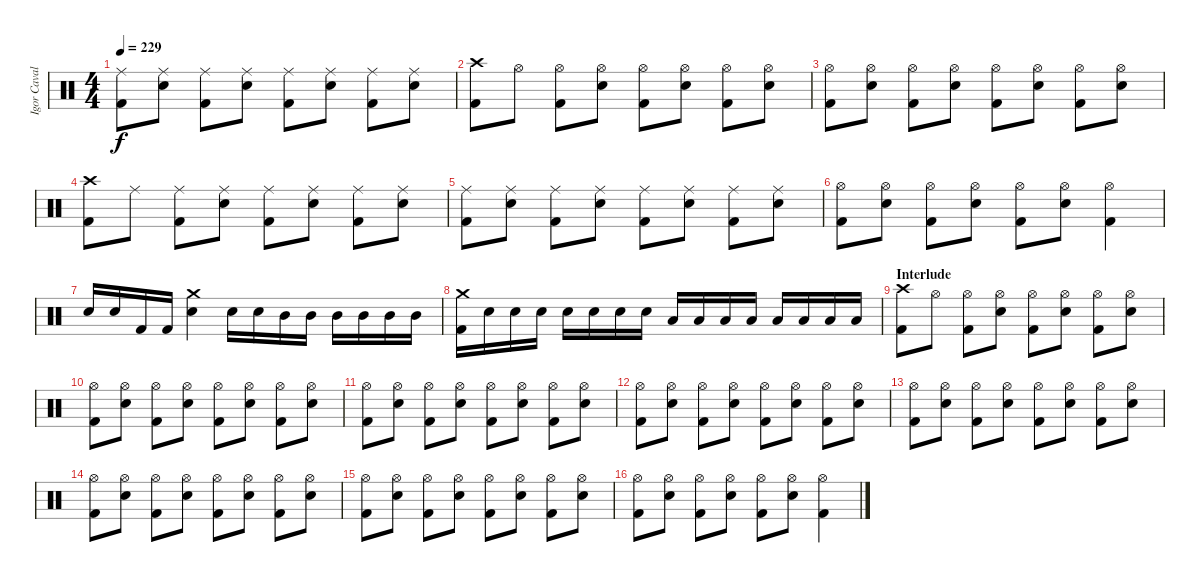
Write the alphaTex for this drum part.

\track ("Igor Cavalera" "Igor Caval") {instrument percussion}
\staff {score}
\articulation defaults
\ts (4 4)
\tempo 229
\clef neutral
\ks c
("Kick (hit) 2" "Ride (middle)").8{dy f} ("Snare (hit) 2" "Ride (middle)").8 ("Kick (hit) 2" "Ride (middle)").8 ("Snare (hit) 2" "Ride (middle)").8 ("Kick (hit) 2" "Ride (middle)").8 ("Snare (hit) 2" "Ride (middle)").8 ("Kick (hit) 2" "Ride (middle)").8 ("Snare (hit) 2" "Ride (middle)").8 |
("Kick (hit) 2" "Crash high (hit)").8 "Hi-Hat (open)".8 ("Kick (hit) 2" "Hi-Hat (open)").8 ("Snare (hit) 2" "Hi-Hat (open)").8 ("Kick (hit) 2" "Hi-Hat (open)").8 ("Snare (hit) 2" "Hi-Hat (open)").8 ("Kick (hit) 2" "Hi-Hat (open)").8 ("Snare (hit) 2" "Hi-Hat (open)").8 |
("Kick (hit) 2" "Hi-Hat (open)").8 ("Snare (hit) 2" "Hi-Hat (open)").8 ("Kick (hit) 2" "Hi-Hat (open)").8 ("Snare (hit) 2" "Hi-Hat (open)").8 ("Kick (hit) 2" "Hi-Hat (open)").8 ("Snare (hit) 2" "Hi-Hat (open)").8 ("Kick (hit) 2" "Hi-Hat (open)").8 ("Snare (hit) 2" "Hi-Hat (open)").8 |
("Kick (hit) 2" "Crash high (hit)").8 "Ride (middle)".8 ("Kick (hit) 2" "Ride (middle)").8 ("Snare (hit) 2" "Ride (middle)").8 ("Kick (hit) 2" "Ride (middle)").8 ("Snare (hit) 2" "Ride (middle)").8 ("Kick (hit) 2" "Ride (middle)").8 ("Snare (hit) 2" "Ride (middle)").8 |
("Kick (hit) 2" "Ride (middle)").8 ("Snare (hit) 2" "Ride (middle)").8 ("Kick (hit) 2" "Ride (middle)").8 ("Snare (hit) 2" "Ride (middle)").8 ("Kick (hit) 2" "Ride (middle)").8 ("Snare (hit) 2" "Ride (middle)").8 ("Kick (hit) 2" "Ride (middle)").8 ("Snare (hit) 2" "Ride (middle)").8 |
("Kick (hit) 2" "Hi-Hat (open)").8 ("Snare (hit) 2" "Hi-Hat (open)").8 ("Kick (hit) 2" "Hi-Hat (open)").8 ("Snare (hit) 2" "Hi-Hat (open)").8 ("Kick (hit) 2" "Hi-Hat (open)").8 ("Snare (hit) 2" "Hi-Hat (open)").8 ("Kick (hit) 2" "Hi-Hat (open)").4 |
"Snare (hit) 2".16 "Snare (hit) 2".16 "Kick (hit) 2".16 "Kick (hit) 2".16 ("Snare (hit) 2" "Crash medium (hit)").4 "Snare (hit) 2".16 "Snare (hit) 2".16 "Mid Tom (hit)".16 "Mid Tom (hit)".16 "Mid Tom (hit)".16 "Mid Tom (hit)".16 "Mid Tom (hit)".16 "Mid Tom (hit)".16 |
("Kick (hit) 2" "Crash medium (hit)").16 "Snare (hit) 2".16 "Snare (hit) 2".16 "Snare (hit) 2".16 "Snare (hit) 2".16 "Snare (hit) 2".16 "Snare (hit) 2".16 "Snare (hit) 2".16 "Low Tom (hit)".16 "Low Tom (hit)".16 "Low Tom (hit)".16 "Low Tom (hit)".16 "Low Tom (hit)".16 "Low Tom (hit)".16 "Low Tom (hit)".16 "Low Tom (hit)".16 |
\section ("" "Interlude")
("Kick (hit) 2" "Crash high (hit)").8 "Hi-Hat (open)".8 ("Kick (hit) 2" "Hi-Hat (open)").8 ("Snare (hit) 2" "Hi-Hat (open)").8 ("Kick (hit) 2" "Hi-Hat (open)").8 ("Snare (hit) 2" "Hi-Hat (open)").8 ("Kick (hit) 2" "Hi-Hat (open)").8 ("Snare (hit) 2" "Hi-Hat (open)").8 |
("Kick (hit) 2" "Hi-Hat (open)").8 ("Snare (hit) 2" "Hi-Hat (open)").8 ("Kick (hit) 2" "Hi-Hat (open)").8 ("Snare (hit) 2" "Hi-Hat (open)").8 ("Kick (hit) 2" "Hi-Hat (open)").8 ("Snare (hit) 2" "Hi-Hat (open)").8 ("Kick (hit) 2" "Hi-Hat (open)").8 ("Snare (hit) 2" "Hi-Hat (open)").8 |
("Kick (hit) 2" "Hi-Hat (open)").8 ("Snare (hit) 2" "Hi-Hat (open)").8 ("Kick (hit) 2" "Hi-Hat (open)").8 ("Snare (hit) 2" "Hi-Hat (open)").8 ("Kick (hit) 2" "Hi-Hat (open)").8 ("Snare (hit) 2" "Hi-Hat (open)").8 ("Kick (hit) 2" "Hi-Hat (open)").8 ("Snare (hit) 2" "Hi-Hat (open)").8 |
("Kick (hit) 2" "Hi-Hat (open)").8 ("Snare (hit) 2" "Hi-Hat (open)").8 ("Kick (hit) 2" "Hi-Hat (open)").8 ("Snare (hit) 2" "Hi-Hat (open)").8 ("Kick (hit) 2" "Hi-Hat (open)").8 ("Snare (hit) 2" "Hi-Hat (open)").8 ("Kick (hit) 2" "Hi-Hat (open)").8 ("Snare (hit) 2" "Hi-Hat (open)").8 |
("Kick (hit) 2" "Hi-Hat (open)").8 ("Snare (hit) 2" "Hi-Hat (open)").8 ("Kick (hit) 2" "Hi-Hat (open)").8 ("Snare (hit) 2" "Hi-Hat (open)").8 ("Kick (hit) 2" "Hi-Hat (open)").8 ("Snare (hit) 2" "Hi-Hat (open)").8 ("Kick (hit) 2" "Hi-Hat (open)").8 ("Snare (hit) 2" "Hi-Hat (open)").8 |
("Kick (hit) 2" "Hi-Hat (open)").8 ("Snare (hit) 2" "Hi-Hat (open)").8 ("Kick (hit) 2" "Hi-Hat (open)").8 ("Snare (hit) 2" "Hi-Hat (open)").8 ("Kick (hit) 2" "Hi-Hat (open)").8 ("Snare (hit) 2" "Hi-Hat (open)").8 ("Kick (hit) 2" "Hi-Hat (open)").8 ("Snare (hit) 2" "Hi-Hat (open)").8 |
("Kick (hit) 2" "Hi-Hat (open)").8 ("Snare (hit) 2" "Hi-Hat (open)").8 ("Kick (hit) 2" "Hi-Hat (open)").8 ("Snare (hit) 2" "Hi-Hat (open)").8 ("Kick (hit) 2" "Hi-Hat (open)").8 ("Snare (hit) 2" "Hi-Hat (open)").8 ("Kick (hit) 2" "Hi-Hat (open)").8 ("Snare (hit) 2" "Hi-Hat (open)").8 |
("Kick (hit) 2" "Hi-Hat (open)").8 ("Snare (hit) 2" "Hi-Hat (open)").8 ("Kick (hit) 2" "Hi-Hat (open)").8 ("Snare (hit) 2" "Hi-Hat (open)").8 ("Kick (hit) 2" "Hi-Hat (open)").8 ("Snare (hit) 2" "Hi-Hat (open)").8 ("Kick (hit) 2" "Hi-Hat (open)").4
